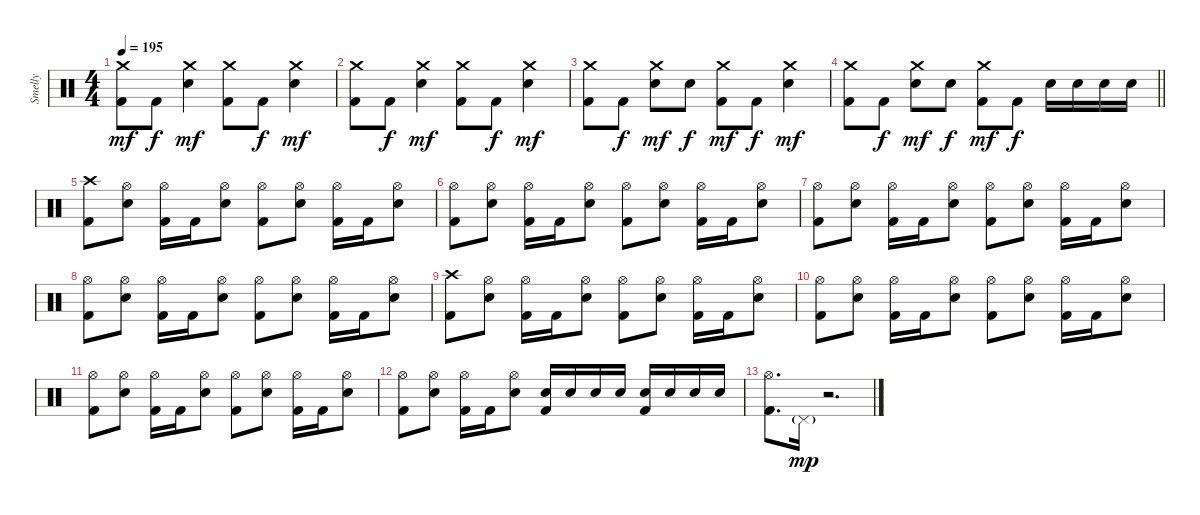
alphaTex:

\track ("Smelly" "Smelly") {instrument percussion}
\staff {score}
\articulation defaults
\ts (4 4)
\tempo 195
\clef neutral
\ks c
("Crash medium (hit)" "Kick (hit) 2").8{dy mf} "Kick (hit) 2".8{dy f} ("Crash medium (hit)" "Electric Snare (hit)").4{dy mf} ("Crash medium (hit)" "Kick (hit) 2").8 "Kick (hit) 2".8{dy f} ("Crash medium (hit)" "Electric Snare (hit)").4{dy mf} |
("Crash medium (hit)" "Kick (hit) 2").8 "Kick (hit) 2".8{dy f} ("Crash medium (hit)" "Electric Snare (hit)").4{dy mf} ("Crash medium (hit)" "Kick (hit) 2").8 "Kick (hit) 2".8{dy f} ("Crash medium (hit)" "Electric Snare (hit)").4{dy mf} |
("Crash medium (hit)" "Kick (hit) 2").8 "Kick (hit) 2".8{dy f} ("Crash medium (hit)" "Electric Snare (hit)").8{dy mf} "Electric Snare (hit)".8{dy f} ("Crash medium (hit)" "Kick (hit) 2").8{dy mf} "Kick (hit) 2".8{dy f} ("Crash medium (hit)" "Electric Snare (hit)").4{dy mf} |
\barLineRight lightlight
("Crash medium (hit)" "Kick (hit) 2").8 "Kick (hit) 2".8{dy f} ("Crash medium (hit)" "Electric Snare (hit)").8{dy mf} "Electric Snare (hit)".8{dy f} ("Crash medium (hit)" "Kick (hit) 2").8{dy mf} "Kick (hit) 2".8{dy f} "Electric Snare (hit)".16 "Electric Snare (hit)".16 "Electric Snare (hit)".16 "Electric Snare (hit)".16 |
\section ("" "")
("Crash high (hit)" "Kick (hit) 2").8 ("Hi-Hat (open)" "Electric Snare (hit)").8 ("Hi-Hat (open)" "Kick (hit) 2").16 "Kick (hit) 2".16 ("Hi-Hat (open)" "Electric Snare (hit)").8 ("Hi-Hat (open)" "Kick (hit) 2").8 ("Hi-Hat (open)" "Electric Snare (hit)").8 ("Hi-Hat (open)" "Kick (hit) 2").16 "Kick (hit) 2".16 ("Hi-Hat (open)" "Electric Snare (hit)").8 |
("Hi-Hat (open)" "Kick (hit) 2").8 ("Hi-Hat (open)" "Electric Snare (hit)").8 ("Hi-Hat (open)" "Kick (hit) 2").16 "Kick (hit) 2".16 ("Hi-Hat (open)" "Electric Snare (hit)").8 ("Hi-Hat (open)" "Kick (hit) 2").8 ("Hi-Hat (open)" "Electric Snare (hit)").8 ("Hi-Hat (open)" "Kick (hit) 2").16 "Kick (hit) 2".16 ("Hi-Hat (open)" "Electric Snare (hit)").8 |
("Hi-Hat (open)" "Kick (hit) 2").8 ("Hi-Hat (open)" "Electric Snare (hit)").8 ("Hi-Hat (open)" "Kick (hit) 2").16 "Kick (hit) 2".16 ("Hi-Hat (open)" "Electric Snare (hit)").8 ("Hi-Hat (open)" "Kick (hit) 2").8 ("Hi-Hat (open)" "Electric Snare (hit)").8 ("Hi-Hat (open)" "Kick (hit) 2").16 "Kick (hit) 2".16 ("Hi-Hat (open)" "Electric Snare (hit)").8 |
("Hi-Hat (open)" "Kick (hit) 2").8 ("Hi-Hat (open)" "Electric Snare (hit)").8 ("Hi-Hat (open)" "Kick (hit) 2").16 "Kick (hit) 2".16 ("Hi-Hat (open)" "Electric Snare (hit)").8 ("Hi-Hat (open)" "Kick (hit) 2").8 ("Hi-Hat (open)" "Electric Snare (hit)").8 ("Hi-Hat (open)" "Kick (hit) 2").16 "Kick (hit) 2".16 ("Hi-Hat (open)" "Electric Snare (hit)").8 |
("Crash high (hit)" "Kick (hit) 2").8 ("Hi-Hat (open)" "Electric Snare (hit)").8 ("Hi-Hat (open)" "Kick (hit) 2").16 "Kick (hit) 2".16 ("Hi-Hat (open)" "Electric Snare (hit)").8 ("Hi-Hat (open)" "Kick (hit) 2").8 ("Hi-Hat (open)" "Electric Snare (hit)").8 ("Hi-Hat (open)" "Kick (hit) 2").16 "Kick (hit) 2".16 ("Hi-Hat (open)" "Electric Snare (hit)").8 |
("Hi-Hat (open)" "Kick (hit) 2").8 ("Hi-Hat (open)" "Electric Snare (hit)").8 ("Hi-Hat (open)" "Kick (hit) 2").16 "Kick (hit) 2".16 ("Hi-Hat (open)" "Electric Snare (hit)").8 ("Hi-Hat (open)" "Kick (hit) 2").8 ("Hi-Hat (open)" "Electric Snare (hit)").8 ("Hi-Hat (open)" "Kick (hit) 2").16 "Kick (hit) 2".16 ("Hi-Hat (open)" "Electric Snare (hit)").8 |
("Hi-Hat (open)" "Kick (hit) 2").8 ("Hi-Hat (open)" "Electric Snare (hit)").8 ("Hi-Hat (open)" "Kick (hit) 2").16 "Kick (hit) 2".16 ("Hi-Hat (open)" "Electric Snare (hit)").8 ("Hi-Hat (open)" "Kick (hit) 2").8 ("Hi-Hat (open)" "Electric Snare (hit)").8 ("Hi-Hat (open)" "Kick (hit) 2").16 "Kick (hit) 2".16 ("Hi-Hat (open)" "Electric Snare (hit)").8 |
("Hi-Hat (open)" "Kick (hit) 2").8 ("Hi-Hat (open)" "Electric Snare (hit)").8 ("Hi-Hat (open)" "Kick (hit) 2").16 "Kick (hit) 2".16 ("Hi-Hat (open)" "Electric Snare (hit)").8 ("Electric Snare (hit)" "Kick (hit) 2").16 "Electric Snare (hit)".16 "Electric Snare (hit)".16 "Electric Snare (hit)".16 ("Electric Snare (hit)" "Kick (hit) 2").16 "Electric Snare (hit)".16 "Electric Snare (hit)".16 "Electric Snare (hit)".16 |
("Hi-Hat (open)" "Kick (hit) 2").8{d} "Pedal Hi-Hat (hit)"{g}.16{dy mp} r.2{d}
